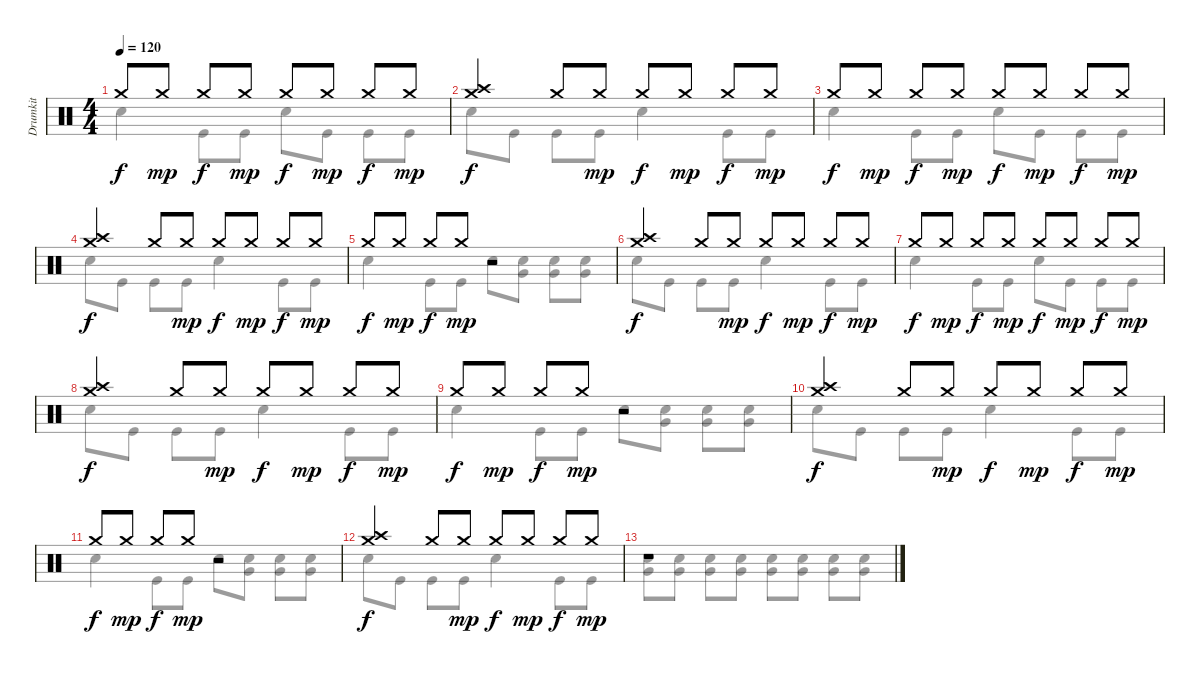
\track ("Drumkit" "Drumkit") {instrument percussion}
\staff {score}
\articulation defaults
\voice
\ts (4 4)
\tempo 120
\clef neutral
\ks c "Crash medium (hit)".8{dy f} "Crash medium (hit)".8{dy mp} "Crash medium (hit)".8{dy f} "Crash medium (hit)".8{dy mp} "Crash medium (hit)".8{dy f} "Crash medium (hit)".8{dy mp} "Crash medium (hit)".8{dy f} "Crash medium (hit)".8{dy mp}
|
("Crash medium (hit)" "Crash high (hit)").4{dy f} "Crash medium (hit)".8 "Crash medium (hit)".8{dy mp} "Crash medium (hit)".8{dy f} "Crash medium (hit)".8{dy mp} "Crash medium (hit)".8{dy f} "Crash medium (hit)".8{dy mp} |
"Crash medium (hit)".8{dy f} "Crash medium (hit)".8{dy mp} "Crash medium (hit)".8{dy f} "Crash medium (hit)".8{dy mp} "Crash medium (hit)".8{dy f} "Crash medium (hit)".8{dy mp} "Crash medium (hit)".8{dy f} "Crash medium (hit)".8{dy mp} |
("Crash medium (hit)" "Crash high (hit)").4{dy f} "Crash medium (hit)".8 "Crash medium (hit)".8{dy mp} "Crash medium (hit)".8{dy f} "Crash medium (hit)".8{dy mp} "Crash medium (hit)".8{dy f} "Crash medium (hit)".8{dy mp} |
"Crash medium (hit)".8{dy f} "Crash medium (hit)".8{dy mp} "Crash medium (hit)".8{dy f} "Crash medium (hit)".8{dy mp} r.2 |
("Crash medium (hit)" "Crash high (hit)").4{dy f} "Crash medium (hit)".8 "Crash medium (hit)".8{dy mp} "Crash medium (hit)".8{dy f} "Crash medium (hit)".8{dy mp} "Crash medium (hit)".8{dy f} "Crash medium (hit)".8{dy mp} |
"Crash medium (hit)".8{dy f} "Crash medium (hit)".8{dy mp} "Crash medium (hit)".8{dy f} "Crash medium (hit)".8{dy mp} "Crash medium (hit)".8{dy f} "Crash medium (hit)".8{dy mp} "Crash medium (hit)".8{dy f} "Crash medium (hit)".8{dy mp} |
("Crash medium (hit)" "Crash high (hit)").4{dy f} "Crash medium (hit)".8 "Crash medium (hit)".8{dy mp} "Crash medium (hit)".8{dy f} "Crash medium (hit)".8{dy mp} "Crash medium (hit)".8{dy f} "Crash medium (hit)".8{dy mp} |
"Crash medium (hit)".8{dy f} "Crash medium (hit)".8{dy mp} "Crash medium (hit)".8{dy f} "Crash medium (hit)".8{dy mp} r.2 |
("Crash medium (hit)" "Crash high (hit)").4{dy f} "Crash medium (hit)".8 "Crash medium (hit)".8{dy mp} "Crash medium (hit)".8{dy f} "Crash medium (hit)".8{dy mp} "Crash medium (hit)".8{dy f} "Crash medium (hit)".8{dy mp} |
"Crash medium (hit)".8{dy f} "Crash medium (hit)".8{dy mp} "Crash medium (hit)".8{dy f} "Crash medium (hit)".8{dy mp} r.2 |
("Crash medium (hit)" "Crash high (hit)").4{dy f} "Crash medium (hit)".8 "Crash medium (hit)".8{dy mp} "Crash medium (hit)".8{dy f} "Crash medium (hit)".8{dy mp} "Crash medium (hit)".8{dy f} "Crash medium (hit)".8{dy mp} |
r.1
\voice
\clef neutral
\ottava regular
\simile none
\ks c "Snare (hit) 2".4{dy f} "Kick (hit)".8 "Kick (hit)".8 "Snare (hit) 2".8 "Kick (hit)".8 "Kick (hit)".8 "Kick (hit)".8
|
"Snare (hit) 2".8 "Kick (hit)".8 "Kick (hit)".8 "Kick (hit)".8 "Snare (hit) 2".4 "Kick (hit)".8 "Kick (hit)".8 |
"Snare (hit) 2".4 "Kick (hit)".8 "Kick (hit)".8 "Snare (hit) 2".8 "Kick (hit)".8 "Kick (hit)".8 "Kick (hit)".8 |
"Snare (hit) 2".8 "Kick (hit)".8 "Kick (hit)".8 "Kick (hit)".8 "Snare (hit) 2".4 "Kick (hit)".8 "Kick (hit)".8 |
"Snare (hit) 2".4 "Kick (hit)".8 "Kick (hit)".8 "Snare (hit) 2".8 ("Snare (hit) 2" "Very Low Tom (hit)").8 ("Snare (hit) 2" "Very Low Tom (hit)").8 ("Snare (hit) 2" "Very Low Tom (hit)").8 |
"Snare (hit) 2".8 "Kick (hit)".8 "Kick (hit)".8 "Kick (hit)".8 "Snare (hit) 2".4 "Kick (hit)".8 "Kick (hit)".8 |
"Snare (hit) 2".4 "Kick (hit)".8 "Kick (hit)".8 "Snare (hit) 2".8 "Kick (hit)".8 "Kick (hit)".8 "Kick (hit)".8 |
"Snare (hit) 2".8 "Kick (hit)".8 "Kick (hit)".8 "Kick (hit)".8 "Snare (hit) 2".4 "Kick (hit)".8 "Kick (hit)".8 |
"Snare (hit) 2".4 "Kick (hit)".8 "Kick (hit)".8 "Snare (hit) 2".8 ("Snare (hit) 2" "Very Low Tom (hit)").8 ("Snare (hit) 2" "Very Low Tom (hit)").8 ("Snare (hit) 2" "Very Low Tom (hit)").8 |
"Snare (hit) 2".8 "Kick (hit)".8 "Kick (hit)".8 "Kick (hit)".8 "Snare (hit) 2".4 "Kick (hit)".8 "Kick (hit)".8 |
"Snare (hit) 2".4 "Kick (hit)".8 "Kick (hit)".8 "Snare (hit) 2".8 ("Snare (hit) 2" "Very Low Tom (hit)").8 ("Snare (hit) 2" "Very Low Tom (hit)").8 ("Snare (hit) 2" "Very Low Tom (hit)").8 |
"Snare (hit) 2".8 "Kick (hit)".8 "Kick (hit)".8 "Kick (hit)".8 "Snare (hit) 2".4 "Kick (hit)".8 "Kick (hit)".8 |
("Snare (hit) 2" "Very Low Tom (hit)").8 ("Snare (hit) 2" "Very Low Tom (hit)").8 ("Snare (hit) 2" "Very Low Tom (hit)").8 ("Snare (hit) 2" "Very Low Tom (hit)").8 ("Snare (hit) 2" "Very Low Tom (hit)").8 ("Snare (hit) 2" "Very Low Tom (hit)").8 ("Snare (hit) 2" "Very Low Tom (hit)").8 ("Snare (hit) 2" "Very Low Tom (hit)").8
